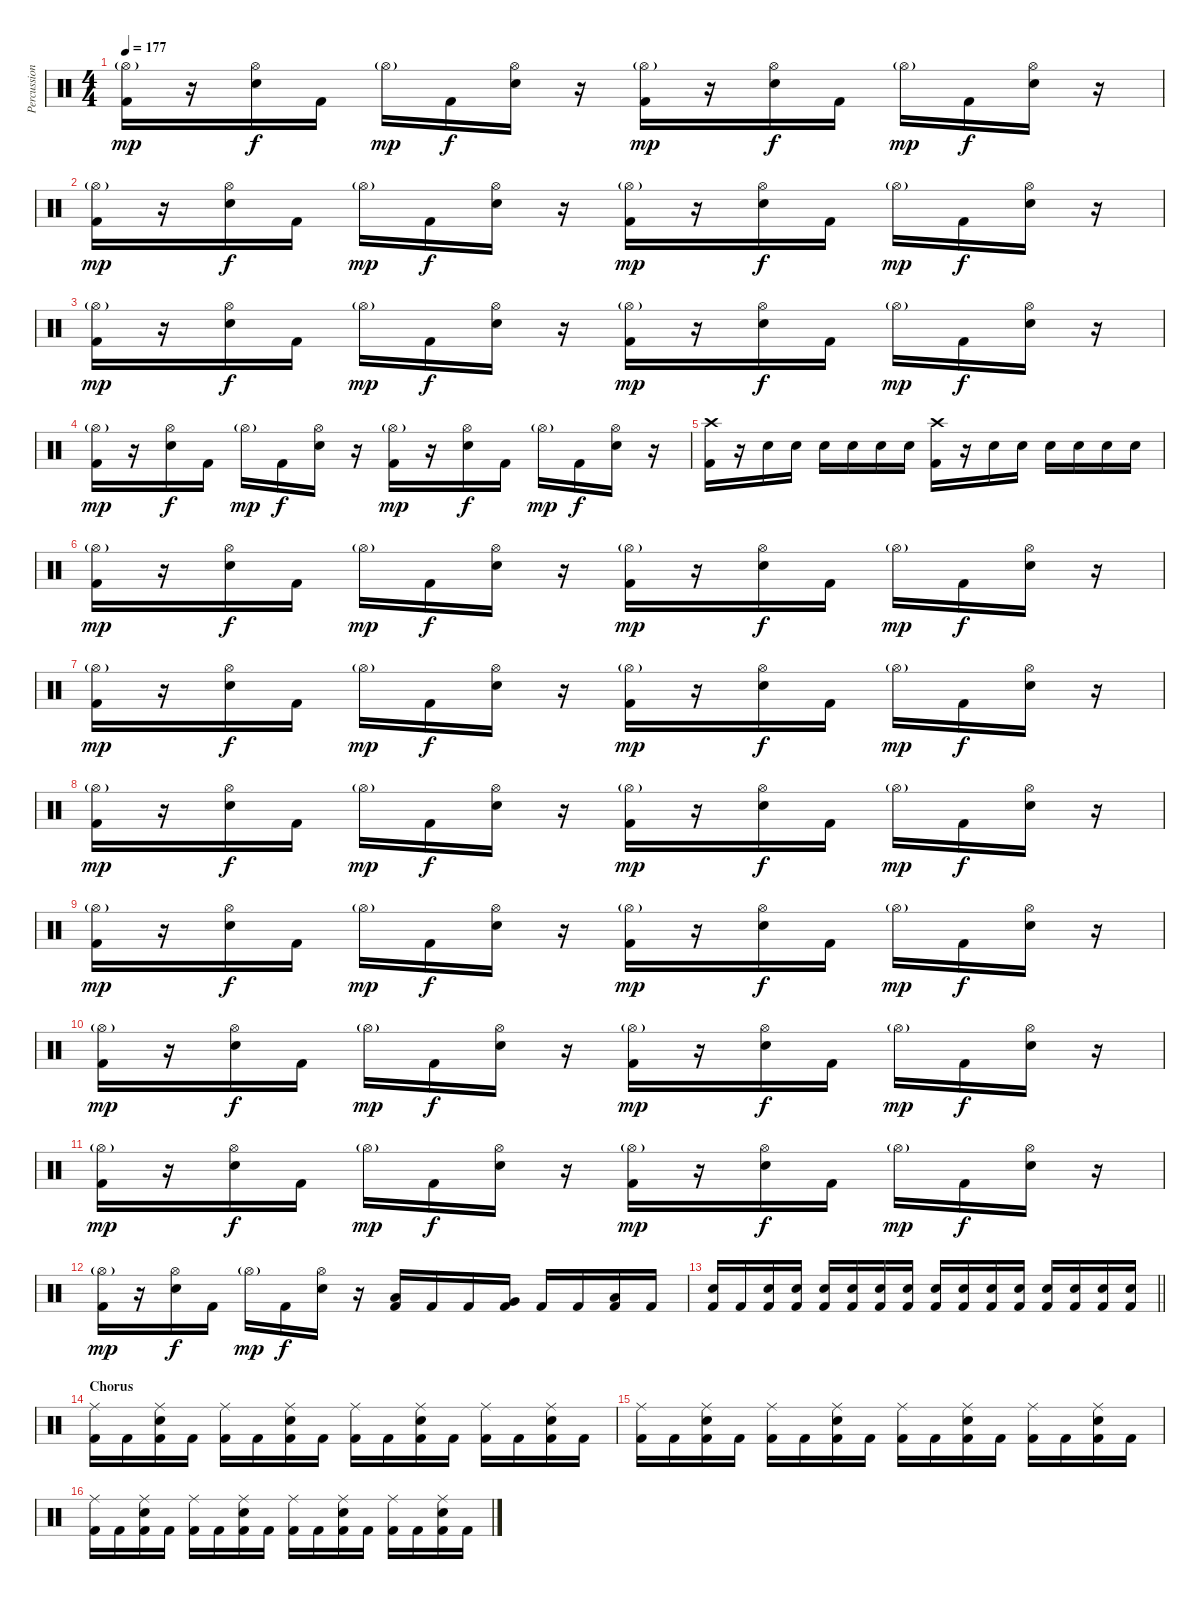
\track ("Percussion" "Percussion") {instrument percussion}
\staff {score}
\articulation defaults
\ts (4 4)
\tempo 177
\clef neutral
\ks c
("Hi-Hat (open)"{g} "Kick (hit) 2").16{dy mp} r.16 ("Hi-Hat (open)" "Snare (hit) 2").16{dy f} "Kick (hit) 2".16 "Hi-Hat (open)"{g}.16{dy mp} "Kick (hit) 2".16{dy f} ("Hi-Hat (open)" "Snare (hit) 2").16 r.16 ("Hi-Hat (open)"{g} "Kick (hit) 2").16{dy mp} r.16 ("Hi-Hat (open)" "Snare (hit) 2").16{dy f} "Kick (hit) 2".16 "Hi-Hat (open)"{g}.16{dy mp} "Kick (hit) 2".16{dy f} ("Hi-Hat (open)" "Snare (hit) 2").16 r.16 |
("Hi-Hat (open)"{g} "Kick (hit) 2").16{dy mp} r.16 ("Hi-Hat (open)" "Snare (hit) 2").16{dy f} "Kick (hit) 2".16 "Hi-Hat (open)"{g}.16{dy mp} "Kick (hit) 2".16{dy f} ("Hi-Hat (open)" "Snare (hit) 2").16 r.16 ("Hi-Hat (open)"{g} "Kick (hit) 2").16{dy mp} r.16 ("Hi-Hat (open)" "Snare (hit) 2").16{dy f} "Kick (hit) 2".16 "Hi-Hat (open)"{g}.16{dy mp} "Kick (hit) 2".16{dy f} ("Hi-Hat (open)" "Snare (hit) 2").16 r.16 |
("Hi-Hat (open)"{g} "Kick (hit) 2").16{dy mp} r.16 ("Hi-Hat (open)" "Snare (hit) 2").16{dy f} "Kick (hit) 2".16 "Hi-Hat (open)"{g}.16{dy mp} "Kick (hit) 2".16{dy f} ("Hi-Hat (open)" "Snare (hit) 2").16 r.16 ("Hi-Hat (open)"{g} "Kick (hit) 2").16{dy mp} r.16 ("Hi-Hat (open)" "Snare (hit) 2").16{dy f} "Kick (hit) 2".16 "Hi-Hat (open)"{g}.16{dy mp} "Kick (hit) 2".16{dy f} ("Hi-Hat (open)" "Snare (hit) 2").16 r.16 |
("Hi-Hat (open)"{g} "Kick (hit) 2").16{dy mp} r.16 ("Hi-Hat (open)" "Snare (hit) 2").16{dy f} "Kick (hit) 2".16 "Hi-Hat (open)"{g}.16{dy mp} "Kick (hit) 2".16{dy f} ("Hi-Hat (open)" "Snare (hit) 2").16 r.16 ("Hi-Hat (open)"{g} "Kick (hit) 2").16{dy mp} r.16 ("Hi-Hat (open)" "Snare (hit) 2").16{dy f} "Kick (hit) 2".16 "Hi-Hat (open)"{g}.16{dy mp} "Kick (hit) 2".16{dy f} ("Hi-Hat (open)" "Snare (hit) 2").16 r.16 |
("Crash high (hit)" "Kick (hit) 2").16 r.16 "Snare (hit) 2".16 "Snare (hit) 2".16 "Snare (hit) 2".16 "Snare (hit) 2".16 "Snare (hit) 2".16 "Snare (hit) 2".16 ("Crash high (hit)" "Kick (hit) 2").16 r.16 "Snare (hit) 2".16 "Snare (hit) 2".16 "Snare (hit) 2".16 "Snare (hit) 2".16 "Snare (hit) 2".16 "Snare (hit) 2".16 |
("Hi-Hat (open)"{g} "Kick (hit) 2").16{dy mp} r.16 ("Hi-Hat (open)" "Snare (hit) 2").16{dy f} "Kick (hit) 2".16 "Hi-Hat (open)"{g}.16{dy mp} "Kick (hit) 2".16{dy f} ("Hi-Hat (open)" "Snare (hit) 2").16 r.16 ("Hi-Hat (open)"{g} "Kick (hit) 2").16{dy mp} r.16 ("Hi-Hat (open)" "Snare (hit) 2").16{dy f} "Kick (hit) 2".16 "Hi-Hat (open)"{g}.16{dy mp} "Kick (hit) 2".16{dy f} ("Hi-Hat (open)" "Snare (hit) 2").16 r.16 |
("Hi-Hat (open)"{g} "Kick (hit) 2").16{dy mp} r.16 ("Hi-Hat (open)" "Snare (hit) 2").16{dy f} "Kick (hit) 2".16 "Hi-Hat (open)"{g}.16{dy mp} "Kick (hit) 2".16{dy f} ("Hi-Hat (open)" "Snare (hit) 2").16 r.16 ("Hi-Hat (open)"{g} "Kick (hit) 2").16{dy mp} r.16 ("Hi-Hat (open)" "Snare (hit) 2").16{dy f} "Kick (hit) 2".16 "Hi-Hat (open)"{g}.16{dy mp} "Kick (hit) 2".16{dy f} ("Hi-Hat (open)" "Snare (hit) 2").16 r.16 |
("Hi-Hat (open)"{g} "Kick (hit) 2").16{dy mp} r.16 ("Hi-Hat (open)" "Snare (hit) 2").16{dy f} "Kick (hit) 2".16 "Hi-Hat (open)"{g}.16{dy mp} "Kick (hit) 2".16{dy f} ("Hi-Hat (open)" "Snare (hit) 2").16 r.16 ("Hi-Hat (open)"{g} "Kick (hit) 2").16{dy mp} r.16 ("Hi-Hat (open)" "Snare (hit) 2").16{dy f} "Kick (hit) 2".16 "Hi-Hat (open)"{g}.16{dy mp} "Kick (hit) 2".16{dy f} ("Hi-Hat (open)" "Snare (hit) 2").16 r.16 |
("Hi-Hat (open)"{g} "Kick (hit) 2").16{dy mp} r.16 ("Hi-Hat (open)" "Snare (hit) 2").16{dy f} "Kick (hit) 2".16 "Hi-Hat (open)"{g}.16{dy mp} "Kick (hit) 2".16{dy f} ("Hi-Hat (open)" "Snare (hit) 2").16 r.16 ("Hi-Hat (open)"{g} "Kick (hit) 2").16{dy mp} r.16 ("Hi-Hat (open)" "Snare (hit) 2").16{dy f} "Kick (hit) 2".16 "Hi-Hat (open)"{g}.16{dy mp} "Kick (hit) 2".16{dy f} ("Hi-Hat (open)" "Snare (hit) 2").16 r.16 |
("Hi-Hat (open)"{g} "Kick (hit) 2").16{dy mp} r.16 ("Hi-Hat (open)" "Snare (hit) 2").16{dy f} "Kick (hit) 2".16 "Hi-Hat (open)"{g}.16{dy mp} "Kick (hit) 2".16{dy f} ("Hi-Hat (open)" "Snare (hit) 2").16 r.16 ("Hi-Hat (open)"{g} "Kick (hit) 2").16{dy mp} r.16 ("Hi-Hat (open)" "Snare (hit) 2").16{dy f} "Kick (hit) 2".16 "Hi-Hat (open)"{g}.16{dy mp} "Kick (hit) 2".16{dy f} ("Hi-Hat (open)" "Snare (hit) 2").16 r.16 |
("Hi-Hat (open)"{g} "Kick (hit) 2").16{dy mp} r.16 ("Hi-Hat (open)" "Snare (hit) 2").16{dy f} "Kick (hit) 2".16 "Hi-Hat (open)"{g}.16{dy mp} "Kick (hit) 2".16{dy f} ("Hi-Hat (open)" "Snare (hit) 2").16 r.16 ("Hi-Hat (open)"{g} "Kick (hit) 2").16{dy mp} r.16 ("Hi-Hat (open)" "Snare (hit) 2").16{dy f} "Kick (hit) 2".16 "Hi-Hat (open)"{g}.16{dy mp} "Kick (hit) 2".16{dy f} ("Hi-Hat (open)" "Snare (hit) 2").16 r.16 |
("Hi-Hat (open)"{g} "Kick (hit) 2").16{dy mp} r.16 ("Hi-Hat (open)" "Snare (hit) 2").16{dy f} "Kick (hit) 2".16 "Hi-Hat (open)"{g}.16{dy mp} "Kick (hit) 2".16{dy f} ("Hi-Hat (open)" "Snare (hit) 2").16 r.16 ("Low Tom (hit)" "Kick (hit) 2").16 "Kick (hit) 2".16 "Kick (hit) 2".16 ("Very Low Tom (hit)" "Kick (hit) 2").16 "Kick (hit) 2".16 "Kick (hit) 2".16 ("Low Floor Tom (hit)" "Kick (hit) 2").16 "Kick (hit) 2".16 |
\barLineRight lightlight
("Snare (hit) 2" "Kick (hit) 2").16 "Kick (hit) 2".16 ("Snare (hit) 2" "Kick (hit) 2").16 ("Snare (hit) 2" "Kick (hit) 2").16 ("Snare (hit) 2" "Kick (hit) 2").16 ("Snare (hit) 2" "Kick (hit) 2").16 ("Snare (hit) 2" "Kick (hit) 2").16 ("Snare (hit) 2" "Kick (hit) 2").16 ("Snare (hit) 2" "Kick (hit) 2").16 ("Snare (hit) 2" "Kick (hit) 2").16 ("Snare (hit) 2" "Kick (hit) 2").16 ("Snare (hit) 2" "Kick (hit) 2").16 ("Snare (hit) 2" "Kick (hit) 2").16 ("Snare (hit) 2" "Kick (hit) 2").16 ("Snare (hit) 2" "Kick (hit) 2").16 ("Snare (hit) 2" "Kick (hit) 2").16 |
\section ("" "Chorus")
("Ride (middle)" "Kick (hit) 2").16 "Kick (hit) 2".16 ("Ride (middle)" "Snare (hit) 2" "Kick (hit) 2").16 "Kick (hit) 2".16 ("Ride (middle)" "Kick (hit) 2").16 "Kick (hit) 2".16 ("Ride (middle)" "Snare (hit) 2" "Kick (hit) 2").16 "Kick (hit) 2".16 ("Ride (middle)" "Kick (hit) 2").16 "Kick (hit) 2".16 ("Ride (middle)" "Snare (hit) 2" "Kick (hit) 2").16 "Kick (hit) 2".16 ("Ride (middle)" "Kick (hit) 2").16 "Kick (hit) 2".16 ("Ride (middle)" "Snare (hit) 2" "Kick (hit) 2").16 "Kick (hit) 2".16 |
("Ride (middle)" "Kick (hit) 2").16 "Kick (hit) 2".16 ("Ride (middle)" "Snare (hit) 2" "Kick (hit) 2").16 "Kick (hit) 2".16 ("Ride (middle)" "Kick (hit) 2").16 "Kick (hit) 2".16 ("Ride (middle)" "Snare (hit) 2" "Kick (hit) 2").16 "Kick (hit) 2".16 ("Ride (middle)" "Kick (hit) 2").16 "Kick (hit) 2".16 ("Ride (middle)" "Snare (hit) 2" "Kick (hit) 2").16 "Kick (hit) 2".16 ("Ride (middle)" "Kick (hit) 2").16 "Kick (hit) 2".16 ("Ride (middle)" "Snare (hit) 2" "Kick (hit) 2").16 "Kick (hit) 2".16 |
("Ride (middle)" "Kick (hit) 2").16 "Kick (hit) 2".16 ("Ride (middle)" "Snare (hit) 2" "Kick (hit) 2").16 "Kick (hit) 2".16 ("Ride (middle)" "Kick (hit) 2").16 "Kick (hit) 2".16 ("Ride (middle)" "Snare (hit) 2" "Kick (hit) 2").16 "Kick (hit) 2".16 ("Ride (middle)" "Kick (hit) 2").16 "Kick (hit) 2".16 ("Ride (middle)" "Snare (hit) 2" "Kick (hit) 2").16 "Kick (hit) 2".16 ("Ride (middle)" "Kick (hit) 2").16 "Kick (hit) 2".16 ("Ride (middle)" "Snare (hit) 2" "Kick (hit) 2").16 "Kick (hit) 2".16
